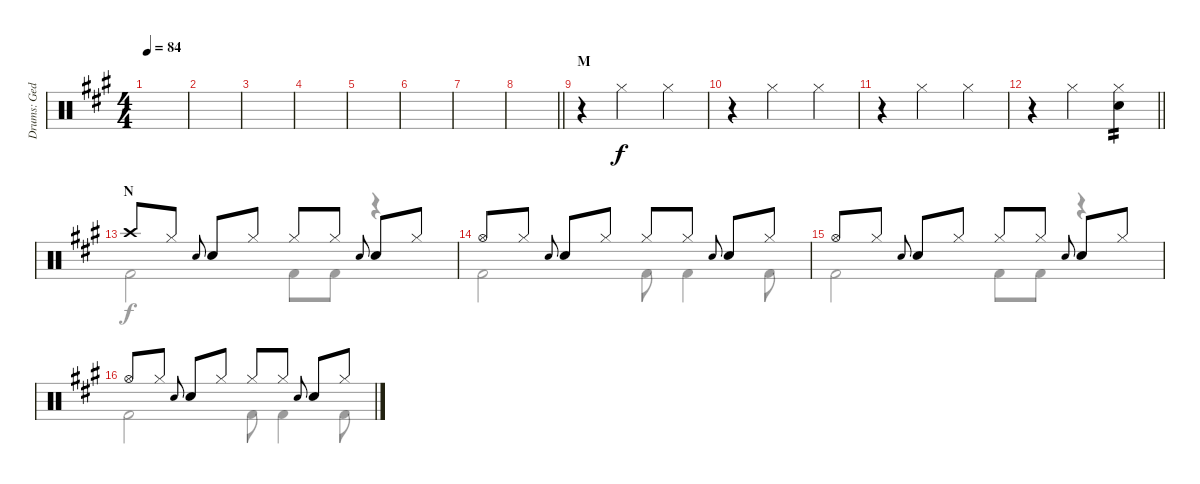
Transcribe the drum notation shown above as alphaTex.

\track ("Drums: Ged Lynch" "Drums: Ged") {instrument percussion}
\staff {score}
\articulation defaults
\voice
\ts (4 4)
\tempo 84
\clef neutral
\ks a
|
|
|
|
|
|
|
\barLineRight lightlight
|
\section ("" "M")
r.4 "Hi-Hat (closed)".2 "Hi-Hat (closed)".4 |
r.4 "Hi-Hat (closed)".2 "Hi-Hat (closed)".4 |
r.4 "Hi-Hat (closed)".2 "Hi-Hat (closed)".4 |
\barLineRight lightlight
r.4 "Hi-Hat (closed)".2 ("Hi-Hat (closed)" "Snare (hit) 2").4{tp 2} |
\section ("" "N")
"Crash high (hit)".8 "Hi-Hat (closed)".8 "Snare (hit) 2".8{gr onbeat beam merge} "Electric Snare (hit)".8 "Hi-Hat (closed)".8 "Hi-Hat (closed)".8 "Hi-Hat (closed)".8 "Snare (hit) 2".8{gr onbeat beam merge} "Electric Snare (hit)".8 "Hi-Hat (closed)".8 |
"Hi-Hat (open)".8 "Hi-Hat (closed)".8 "Snare (hit) 2".8{gr onbeat beam merge} "Electric Snare (hit)".8 "Hi-Hat (closed)".8 "Hi-Hat (closed)".8 "Hi-Hat (closed)".8 "Snare (hit) 2".8{gr onbeat beam merge} "Electric Snare (hit)".8 "Hi-Hat (closed)".8 |
"Hi-Hat (open)".8 "Hi-Hat (closed)".8 "Snare (hit) 2".8{gr onbeat beam merge} "Electric Snare (hit)".8 "Hi-Hat (closed)".8 "Hi-Hat (closed)".8 "Hi-Hat (closed)".8 "Snare (hit) 2".8{gr onbeat beam merge} "Electric Snare (hit)".8 "Hi-Hat (closed)".8 |
"Hi-Hat (open)".8 "Hi-Hat (closed)".8 "Snare (hit) 2".8{gr onbeat beam merge} "Electric Snare (hit)".8 "Hi-Hat (closed)".8 "Hi-Hat (closed)".8 "Hi-Hat (closed)".8 "Snare (hit) 2".8{gr onbeat beam merge} "Electric Snare (hit)".8 "Hi-Hat (closed)".8
\voice
\clef neutral
\ottava regular
\simile none
\ks a
|
|
|
|
|
|
|
\barLineRight lightlight
|
|
|
|
\barLineRight lightlight
|
"Kick (hit) 2".2 "Kick (hit) 2".8 "Kick (hit) 2".8 r.4 |
"Kick (hit) 2".2 "Kick (hit) 2".8 "Kick (hit) 2".4 "Kick (hit) 2".8 |
"Kick (hit) 2".2 "Kick (hit) 2".8 "Kick (hit) 2".8 r.4 |
"Kick (hit) 2".2 "Kick (hit) 2".8 "Kick (hit) 2".4 "Kick (hit) 2".8
